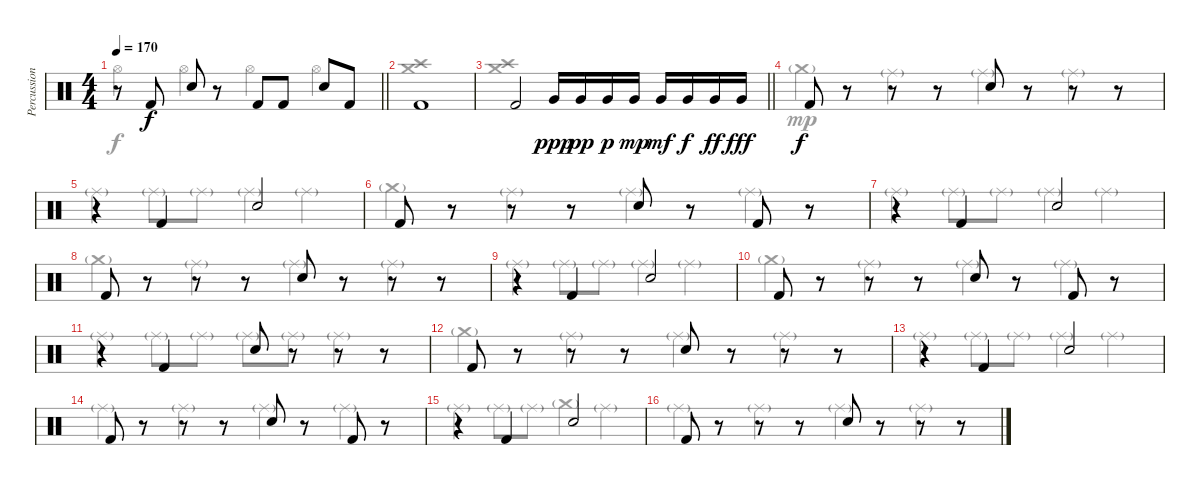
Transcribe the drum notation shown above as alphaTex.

\track ("Percussion" "Percussion") {instrument percussion}
\staff {score}
\articulation defaults
\voice
\ts (4 4)
\tempo 170
\clef neutral
\barLineRight lightlight
\ks c
r.8{dy f} "Kick (hit) 2".8 "Snare (hit) 2".8 r.8 "Kick (hit) 2".8 "Kick (hit) 2".8 "Snare (hit) 2".8 "Kick (hit) 2".8 |
"Kick (hit) 2".1 |
\barLineRight lightlight "Kick (hit) 2".2 "Very Low Tom (hit)".16{dy ppp} "Very Low Tom (hit)".16{dy pp} "Very Low Tom (hit)".16{dy p} "Very Low Tom (hit)".16{dy mp} "Very Low Tom (hit)".16{dy mf} "Very Low Tom (hit)".16{dy f} "Very Low Tom (hit)".16{dy ff} "Very Low Tom (hit)".16{dy fff}
|
"Kick (hit) 2".8{dy f} r.8 r.8 r.8 "Snare (hit) 2".8 r.8 r.8 r.8 |
r.4 "Kick (hit) 2".4 "Snare (hit) 2".2 |
"Kick (hit) 2".8 r.8 r.8 r.8 "Snare (hit) 2".8 r.8 "Kick (hit) 2".8 r.8 |
r.4 "Kick (hit) 2".4 "Snare (hit) 2".2 |
"Kick (hit) 2".8 r.8 r.8 r.8 "Snare (hit) 2".8 r.8 r.8 r.8 |
r.4 "Kick (hit) 2".4 "Snare (hit) 2".2 |
"Kick (hit) 2".8 r.8 r.8 r.8 "Snare (hit) 2".8 r.8 "Kick (hit) 2".8 r.8 |
r.4 "Kick (hit) 2".4 "Snare (hit) 2".8 r.8 r.8 r.8 |
"Kick (hit) 2".8 r.8 r.8 r.8 "Snare (hit) 2".8 r.8 r.8 r.8 |
r.4 "Kick (hit) 2".4 "Snare (hit) 2".2 |
"Kick (hit) 2".8 r.8 r.8 r.8 "Snare (hit) 2".8 r.8 "Kick (hit) 2".8 r.8 |
r.4 "Kick (hit) 2".4 "Snare (hit) 2".2 |
"Kick (hit) 2".8 r.8 r.8 r.8 "Snare (hit) 2".8 r.8 r.8 r.8
\voice
\clef neutral
\ottava regular
\simile none
\barLineRight lightlight
\ks c "Hi-Hat (open)".4{dy f} "Hi-Hat (open)".4 "Hi-Hat (open)".4 "Hi-Hat (open)".4
|
("Crash high (hit)" "Crash medium (hit)").1 |
\barLineRight lightlight
("Crash high (hit)" "Crash medium (hit)").1 |
"Crash medium (hit)"{g}.4{dy mp} "Ride (middle)"{g}.4 "Ride (middle)"{g}.4 "Ride (middle)"{g}.4 |
"Ride (middle)"{g}.4 "Ride (middle)"{g}.8 "Ride (middle)"{g}.8 "Ride (middle)"{g}.4 "Ride (middle)"{g}.4 |
"Crash medium (hit)"{g}.4 "Ride (middle)"{g}.4 "Ride (middle)"{g}.4 "Ride (middle)"{g}.4 |
"Ride (middle)"{g}.4 "Ride (middle)"{g}.8 "Ride (middle)"{g}.8 "Ride (middle)"{g}.4 "Ride (middle)"{g}.4 |
"Crash medium (hit)"{g}.4 "Ride (middle)"{g}.4 "Ride (middle)"{g}.4 "Ride (middle)"{g}.4 |
"Ride (middle)"{g}.4 "Ride (middle)"{g}.8 "Ride (middle)"{g}.8 "Ride (middle)"{g}.4 "Ride (middle)"{g}.4 |
"Crash medium (hit)"{g}.4 "Ride (middle)"{g}.4 "Ride (middle)"{g}.4 "Ride (middle)"{g}.4 |
"Ride (middle)"{g}.4 "Ride (middle)"{g}.8 "Ride (middle)"{g}.8 "Ride (middle)"{g}.8 "Ride (middle)"{g}.8 "Ride (middle)"{g}.4 |
"Crash medium (hit)"{g}.4 "Ride (middle)"{g}.4 "Ride (middle)"{g}.4 "Ride (middle)"{g}.4 |
"Ride (middle)"{g}.4 "Ride (middle)"{g}.8 "Ride (middle)"{g}.8 "Ride (middle)"{g}.4 "Ride (middle)"{g}.4 |
"Ride (middle)"{g}.4 "Ride (middle)"{g}.4 "Ride (middle)"{g}.4 "Ride (middle)"{g}.4 |
"Ride (middle)"{g}.4 "Ride (middle)"{g}.8 "Ride (middle)"{g}.8 "Crash medium (hit)"{g}.4 "Ride (middle)"{g}.4 |
"Ride (middle)"{g}.4 "Ride (middle)"{g}.4 "Ride (middle)"{g}.4 "Ride (middle)"{g}.4
